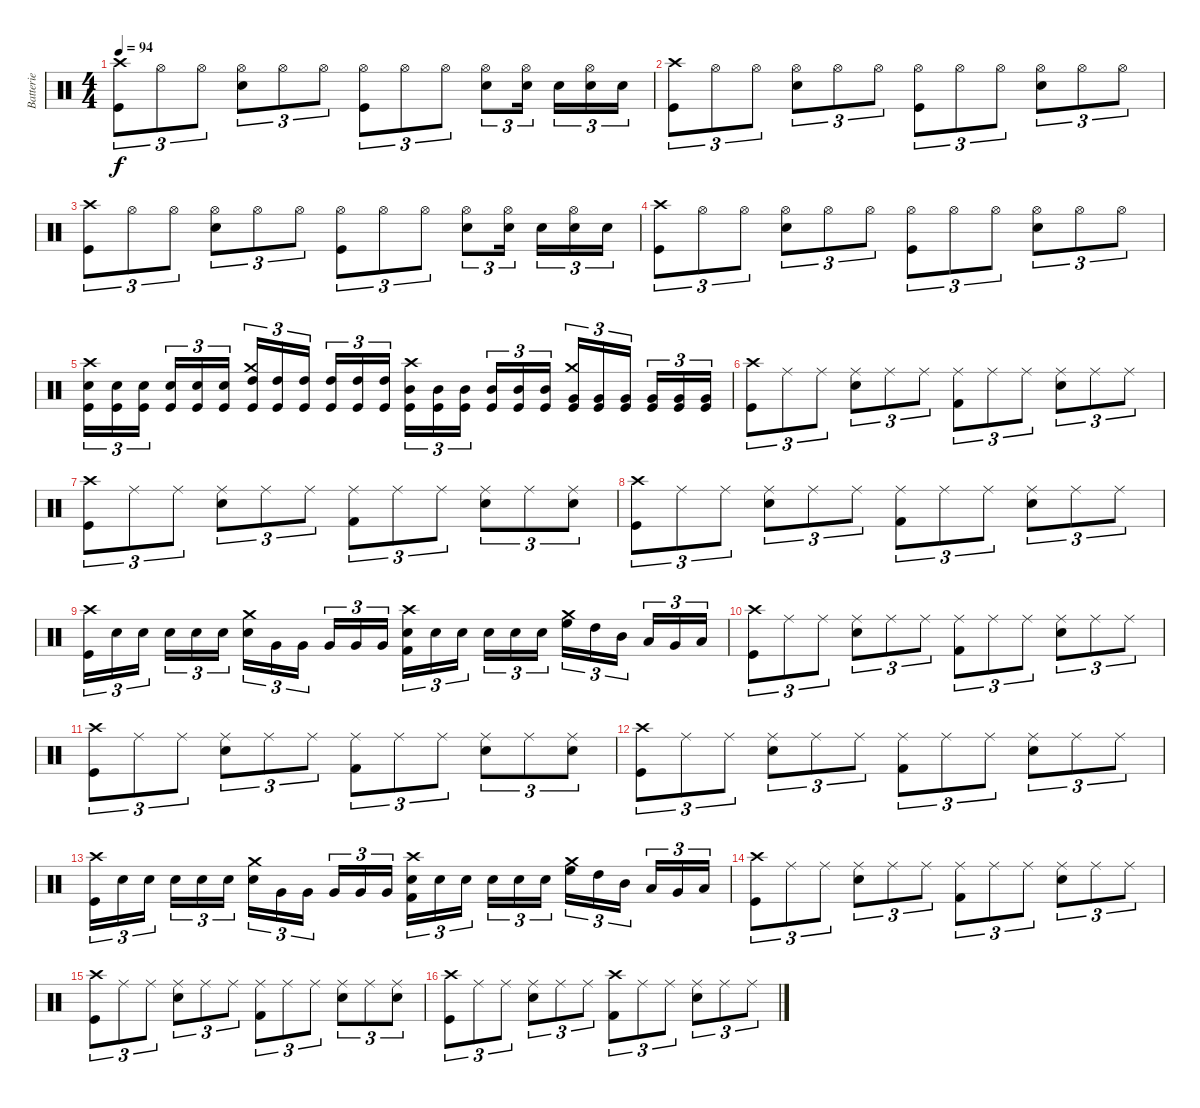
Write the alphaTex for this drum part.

\track ("Batterie" "Batterie") {instrument percussion}
\staff {score}
\articulation defaults
\ts (4 4)
\tempo 94
\clef neutral
\ks c
("Crash high (hit)" "Kick (hit)").8{tu (3 2) dy f} "Hi-Hat (open)".8{tu (3 2)} "Hi-Hat (open)".8{tu (3 2)} ("Hi-Hat (open)" "Snare (hit) 2").8{tu (3 2)} "Hi-Hat (open)".8{tu (3 2)} "Hi-Hat (open)".8{tu (3 2)} ("Hi-Hat (open)" "Kick (hit)").8{tu (3 2)} "Hi-Hat (open)".8{tu (3 2)} "Hi-Hat (open)".8{tu (3 2)} ("Hi-Hat (open)" "Snare (hit) 2").8{tu (3 2)} ("Hi-Hat (open)" "Snare (hit) 2").16{tu (3 2)} "Snare (hit) 2".16{tu (3 2)} ("Hi-Hat (open)" "Snare (hit) 2").16{tu (3 2)} "Snare (hit) 2".16{tu (3 2)} |
("Crash high (hit)" "Kick (hit)").8{tu (3 2)} "Hi-Hat (open)".8{tu (3 2)} "Hi-Hat (open)".8{tu (3 2)} ("Hi-Hat (open)" "Snare (hit) 2").8{tu (3 2)} "Hi-Hat (open)".8{tu (3 2)} "Hi-Hat (open)".8{tu (3 2)} ("Hi-Hat (open)" "Kick (hit)").8{tu (3 2)} "Hi-Hat (open)".8{tu (3 2)} "Hi-Hat (open)".8{tu (3 2)} ("Hi-Hat (open)" "Snare (hit) 2").8{tu (3 2)} "Hi-Hat (open)".8{tu (3 2)} "Hi-Hat (open)".8{tu (3 2)} |
("Crash high (hit)" "Kick (hit)").8{tu (3 2)} "Hi-Hat (open)".8{tu (3 2)} "Hi-Hat (open)".8{tu (3 2)} ("Hi-Hat (open)" "Snare (hit) 2").8{tu (3 2)} "Hi-Hat (open)".8{tu (3 2)} "Hi-Hat (open)".8{tu (3 2)} ("Hi-Hat (open)" "Kick (hit)").8{tu (3 2)} "Hi-Hat (open)".8{tu (3 2)} "Hi-Hat (open)".8{tu (3 2)} ("Hi-Hat (open)" "Snare (hit) 2").8{tu (3 2)} ("Hi-Hat (open)" "Snare (hit) 2").16{tu (3 2)} "Snare (hit) 2".16{tu (3 2)} ("Hi-Hat (open)" "Snare (hit) 2").16{tu (3 2)} "Snare (hit) 2".16{tu (3 2)} |
("Crash high (hit)" "Kick (hit)").8{tu (3 2)} "Hi-Hat (open)".8{tu (3 2)} "Hi-Hat (open)".8{tu (3 2)} ("Hi-Hat (open)" "Snare (hit) 2").8{tu (3 2)} "Hi-Hat (open)".8{tu (3 2)} "Hi-Hat (open)".8{tu (3 2)} ("Hi-Hat (open)" "Kick (hit)").8{tu (3 2)} "Hi-Hat (open)".8{tu (3 2)} "Hi-Hat (open)".8{tu (3 2)} ("Hi-Hat (open)" "Snare (hit) 2").8{tu (3 2)} "Hi-Hat (open)".8{tu (3 2)} "Hi-Hat (open)".8{tu (3 2)} |
("Crash high (hit)" "Snare (hit) 2" "Kick (hit)").16{tu (3 2)} ("Snare (hit) 2" "Kick (hit)").16{tu (3 2)} ("Snare (hit) 2" "Kick (hit)").16{tu (3 2)} ("Snare (hit) 2" "Kick (hit)").16{tu (3 2)} ("Snare (hit) 2" "Kick (hit)").16{tu (3 2)} ("Snare (hit) 2" "Kick (hit)").16{tu (3 2)} ("Crash medium (hit)" "High Tom (hit)" "Kick (hit)").16{tu (3 2)} ("High Tom (hit)" "Kick (hit)").16{tu (3 2)} ("High Tom (hit)" "Kick (hit)").16{tu (3 2)} ("High Tom (hit)" "Kick (hit)").16{tu (3 2)} ("High Tom (hit)" "Kick (hit)").16{tu (3 2)} ("High Tom (hit)" "Kick (hit)").16{tu (3 2)} ("Crash high (hit)" "Mid Tom (hit)" "Kick (hit)").16{tu (3 2)} ("Mid Tom (hit)" "Kick (hit)").16{tu (3 2)} ("Mid Tom (hit)" "Kick (hit)").16{tu (3 2)} ("Mid Tom (hit)" "Kick (hit)").16{tu (3 2)} ("Mid Tom (hit)" "Kick (hit)").16{tu (3 2)} ("Mid Tom (hit)" "Kick (hit)").16{tu (3 2)} ("Crash medium (hit)" "Very Low Tom (hit)" "Kick (hit)").16{tu (3 2)} ("Very Low Tom (hit)" "Kick (hit)").16{tu (3 2)} ("Very Low Tom (hit)" "Kick (hit)").16{tu (3 2)} ("Very Low Tom (hit)" "Kick (hit)").16{tu (3 2)} ("Very Low Tom (hit)" "Kick (hit)").16{tu (3 2)} ("Very Low Tom (hit)" "Kick (hit)").16{tu (3 2)} |
("Crash high (hit)" "Kick (hit)").8{tu (3 2)} "Ride (middle)".8{tu (3 2)} "Ride (middle)".8{tu (3 2)} ("Ride (middle)" "Snare (hit) 2").8{tu (3 2)} "Ride (middle)".8{tu (3 2)} "Ride (middle)".8{tu (3 2)} ("Ride (middle)" "Kick (hit) 2").8{tu (3 2)} "Ride (middle)".8{tu (3 2)} "Ride (middle)".8{tu (3 2)} ("Ride (middle)" "Snare (hit) 2").8{tu (3 2)} "Ride (middle)".8{tu (3 2)} "Ride (middle)".8{tu (3 2)} |
("Crash high (hit)" "Kick (hit)").8{tu (3 2)} "Ride (middle)".8{tu (3 2)} "Ride (middle)".8{tu (3 2)} ("Ride (middle)" "Snare (hit) 2").8{tu (3 2)} "Ride (middle)".8{tu (3 2)} "Ride (middle)".8{tu (3 2)} ("Ride (middle)" "Kick (hit) 2").8{tu (3 2)} "Ride (middle)".8{tu (3 2)} "Ride (middle)".8{tu (3 2)} ("Ride (middle)" "Snare (hit) 2").8{tu (3 2)} "Ride (middle)".8{tu (3 2)} ("Ride (middle)" "Snare (hit) 2").8{tu (3 2)} |
("Crash high (hit)" "Kick (hit)").8{tu (3 2)} "Ride (middle)".8{tu (3 2)} "Ride (middle)".8{tu (3 2)} ("Ride (middle)" "Snare (hit) 2").8{tu (3 2)} "Ride (middle)".8{tu (3 2)} "Ride (middle)".8{tu (3 2)} ("Ride (middle)" "Kick (hit) 2").8{tu (3 2)} "Ride (middle)".8{tu (3 2)} "Ride (middle)".8{tu (3 2)} ("Ride (middle)" "Snare (hit) 2").8{tu (3 2)} "Ride (middle)".8{tu (3 2)} "Ride (middle)".8{tu (3 2)} |
("Crash high (hit)" "Kick (hit)").16{tu (3 2)} "Snare (hit) 2".16{tu (3 2)} "Snare (hit) 2".16{tu (3 2)} "Snare (hit) 2".16{tu (3 2)} "Snare (hit) 2".16{tu (3 2)} "Snare (hit) 2".16{tu (3 2)} ("Crash medium (hit)" "Snare (hit) 2").16{tu (3 2)} "Very Low Tom (hit)".16{tu (3 2)} "Very Low Tom (hit)".16{tu (3 2)} "Very Low Tom (hit)".16{tu (3 2)} "Very Low Tom (hit)".16{tu (3 2)} "Very Low Tom (hit)".16{tu (3 2)} ("Crash high (hit)" "Snare (hit) 2" "Kick (hit) 2").16{tu (3 2)} "Snare (hit) 2".16{tu (3 2)} "Snare (hit) 2".16{tu (3 2)} "Snare (hit) 2".16{tu (3 2)} "Snare (hit) 2".16{tu (3 2)} "Snare (hit) 2".16{tu (3 2)} ("Crash medium (hit)" "High Floor Tom (hit)").16{tu (3 2)} "High Tom (hit)".16{tu (3 2)} "Mid Tom (hit)".16{tu (3 2)} "Low Tom (hit)".16{tu (3 2)} "Very Low Tom (hit)".16{tu (3 2)} "Low Floor Tom (hit)".16{tu (3 2)} |
("Crash high (hit)" "Kick (hit)").8{tu (3 2)} "Ride (middle)".8{tu (3 2)} "Ride (middle)".8{tu (3 2)} ("Ride (middle)" "Snare (hit) 2").8{tu (3 2)} "Ride (middle)".8{tu (3 2)} "Ride (middle)".8{tu (3 2)} ("Ride (middle)" "Kick (hit) 2").8{tu (3 2)} "Ride (middle)".8{tu (3 2)} "Ride (middle)".8{tu (3 2)} ("Ride (middle)" "Snare (hit) 2").8{tu (3 2)} "Ride (middle)".8{tu (3 2)} "Ride (middle)".8{tu (3 2)} |
("Crash high (hit)" "Kick (hit)").8{tu (3 2)} "Ride (middle)".8{tu (3 2)} "Ride (middle)".8{tu (3 2)} ("Ride (middle)" "Snare (hit) 2").8{tu (3 2)} "Ride (middle)".8{tu (3 2)} "Ride (middle)".8{tu (3 2)} ("Ride (middle)" "Kick (hit) 2").8{tu (3 2)} "Ride (middle)".8{tu (3 2)} "Ride (middle)".8{tu (3 2)} ("Ride (middle)" "Snare (hit) 2").8{tu (3 2)} "Ride (middle)".8{tu (3 2)} ("Ride (middle)" "Snare (hit) 2").8{tu (3 2)} |
("Crash high (hit)" "Kick (hit)").8{tu (3 2)} "Ride (middle)".8{tu (3 2)} "Ride (middle)".8{tu (3 2)} ("Ride (middle)" "Snare (hit) 2").8{tu (3 2)} "Ride (middle)".8{tu (3 2)} "Ride (middle)".8{tu (3 2)} ("Ride (middle)" "Kick (hit) 2").8{tu (3 2)} "Ride (middle)".8{tu (3 2)} "Ride (middle)".8{tu (3 2)} ("Ride (middle)" "Snare (hit) 2").8{tu (3 2)} "Ride (middle)".8{tu (3 2)} "Ride (middle)".8{tu (3 2)} |
("Crash high (hit)" "Kick (hit)").16{tu (3 2)} "Snare (hit) 2".16{tu (3 2)} "Snare (hit) 2".16{tu (3 2)} "Snare (hit) 2".16{tu (3 2)} "Snare (hit) 2".16{tu (3 2)} "Snare (hit) 2".16{tu (3 2)} ("Crash medium (hit)" "Snare (hit) 2").16{tu (3 2)} "Very Low Tom (hit)".16{tu (3 2)} "Very Low Tom (hit)".16{tu (3 2)} "Very Low Tom (hit)".16{tu (3 2)} "Very Low Tom (hit)".16{tu (3 2)} "Very Low Tom (hit)".16{tu (3 2)} ("Crash high (hit)" "Snare (hit) 2" "Kick (hit) 2").16{tu (3 2)} "Snare (hit) 2".16{tu (3 2)} "Snare (hit) 2".16{tu (3 2)} "Snare (hit) 2".16{tu (3 2)} "Snare (hit) 2".16{tu (3 2)} "Snare (hit) 2".16{tu (3 2)} ("Crash medium (hit)" "High Floor Tom (hit)").16{tu (3 2)} "High Tom (hit)".16{tu (3 2)} "Mid Tom (hit)".16{tu (3 2)} "Low Tom (hit)".16{tu (3 2)} "Very Low Tom (hit)".16{tu (3 2)} "Low Floor Tom (hit)".16{tu (3 2)} |
("Crash high (hit)" "Kick (hit)").8{tu (3 2)} "Ride (middle)".8{tu (3 2)} "Ride (middle)".8{tu (3 2)} ("Ride (middle)" "Snare (hit) 2").8{tu (3 2)} "Ride (middle)".8{tu (3 2)} "Ride (middle)".8{tu (3 2)} ("Ride (middle)" "Kick (hit) 2").8{tu (3 2)} "Ride (middle)".8{tu (3 2)} "Ride (middle)".8{tu (3 2)} ("Ride (middle)" "Snare (hit) 2").8{tu (3 2)} "Ride (middle)".8{tu (3 2)} "Ride (middle)".8{tu (3 2)} |
("Crash high (hit)" "Kick (hit)").8{tu (3 2)} "Ride (middle)".8{tu (3 2)} "Ride (middle)".8{tu (3 2)} ("Ride (middle)" "Snare (hit) 2").8{tu (3 2)} "Ride (middle)".8{tu (3 2)} "Ride (middle)".8{tu (3 2)} ("Ride (middle)" "Kick (hit) 2").8{tu (3 2)} "Ride (middle)".8{tu (3 2)} "Ride (middle)".8{tu (3 2)} ("Ride (middle)" "Snare (hit) 2").8{tu (3 2)} "Ride (middle)".8{tu (3 2)} ("Ride (middle)" "Snare (hit) 2").8{tu (3 2)} |
("Crash high (hit)" "Kick (hit)").8{tu (3 2)} "Ride (middle)".8{tu (3 2)} "Ride (middle)".8{tu (3 2)} ("Ride (middle)" "Snare (hit) 2").8{tu (3 2)} "Ride (middle)".8{tu (3 2)} "Ride (middle)".8{tu (3 2)} ("Crash high (hit)" "Kick (hit) 2").8{tu (3 2)} "Ride (middle)".8{tu (3 2)} "Ride (middle)".8{tu (3 2)} ("Ride (middle)" "Snare (hit) 2").8{tu (3 2)} "Ride (middle)".8{tu (3 2)} "Ride (middle)".8{tu (3 2)}
